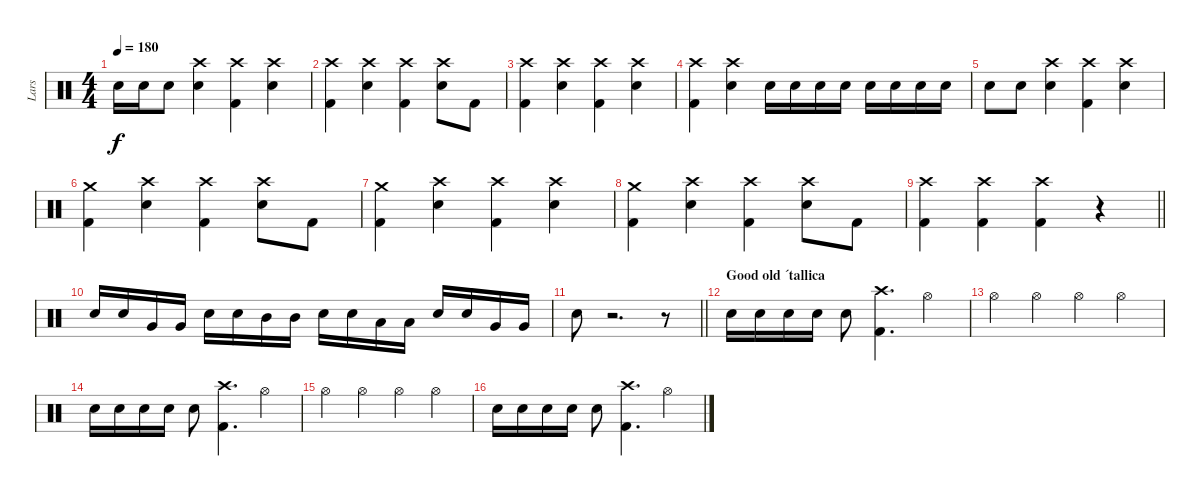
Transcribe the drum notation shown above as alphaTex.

\track ("Lars" "Lars") {instrument percussion}
\staff {score}
\articulation defaults
\ts (4 4)
\tempo 180
\clef neutral
\ks c "Electric Snare (hit)".16{dy f} "Electric Snare (hit)".16 "Electric Snare (hit)".8
("Crash high (hit)" "Electric Snare (hit)").4 ("Crash high (hit)" "Kick (hit) 2").4 ("Crash high (hit)" "Electric Snare (hit)").4 |
("Crash high (hit)" "Kick (hit) 2").4 ("Crash high (hit)" "Electric Snare (hit)").4 ("Crash high (hit)" "Kick (hit) 2").4 ("Crash high (hit)" "Electric Snare (hit)").8 "Kick (hit) 2".8 |
("Crash high (hit)" "Kick (hit) 2").4 ("Crash high (hit)" "Electric Snare (hit)").4 ("Crash high (hit)" "Kick (hit) 2").4 ("Crash high (hit)" "Electric Snare (hit)").4 |
("Crash high (hit)" "Kick (hit) 2").4 ("Crash high (hit)" "Electric Snare (hit)").4 "Electric Snare (hit)".16 "Electric Snare (hit)".16 "Electric Snare (hit)".16 "Electric Snare (hit)".16 "Electric Snare (hit)".16 "Electric Snare (hit)".16 "Electric Snare (hit)".16 "Electric Snare (hit)".16 |
"Electric Snare (hit)".8 "Electric Snare (hit)".8 ("Crash high (hit)" "Electric Snare (hit)").4 ("Crash high (hit)" "Kick (hit) 2").4 ("Crash high (hit)" "Electric Snare (hit)").4 |
("Crash medium (hit)" "Kick (hit) 2").4 ("Crash high (hit)" "Electric Snare (hit)").4 ("Crash high (hit)" "Kick (hit) 2").4 ("Crash high (hit)" "Electric Snare (hit)").8 "Kick (hit) 2".8 |
("Crash medium (hit)" "Kick (hit) 2").4 ("Crash high (hit)" "Electric Snare (hit)").4 ("Crash high (hit)" "Kick (hit) 2").4 ("Crash high (hit)" "Electric Snare (hit)").4 |
("Crash medium (hit)" "Kick (hit) 2").4 ("Crash high (hit)" "Electric Snare (hit)").4 ("Crash high (hit)" "Kick (hit) 2").4 ("Crash high (hit)" "Electric Snare (hit)").8 "Kick (hit) 2".8 |
\barLineRight lightlight
("Crash high (hit)" "Kick (hit) 2").4 ("Crash high (hit)" "Kick (hit) 2").4 ("Crash high (hit)" "Kick (hit) 2").4 r.4 |
\section ("" "")
"Electric Snare (hit)".16 "Electric Snare (hit)".16 "Very Low Tom (hit)".16 "Very Low Tom (hit)".16 "Electric Snare (hit)".16 "Electric Snare (hit)".16 "Mid Tom (hit)".16 "Mid Tom (hit)".16 "Electric Snare (hit)".16 "Electric Snare (hit)".16 "Low Tom (hit)".16 "Low Tom (hit)".16 "Electric Snare (hit)".16 "Electric Snare (hit)".16 "Very Low Tom (hit)".16 "Very Low Tom (hit)".16 |
\barLineRight lightlight "Electric Snare (hit)".8
r.2{d} r.8 |
\section ("" "Good old ´tallica")
"Electric Snare (hit)".16 "Electric Snare (hit)".16 "Electric Snare (hit)".16 "Electric Snare (hit)".16 "Electric Snare (hit)".8 ("Crash high (hit)" "Kick (hit) 2").4{d} "Hi-Hat (open)".4 |
"Hi-Hat (open)".4 "Hi-Hat (open)".4 "Hi-Hat (open)".4 "Hi-Hat (open)".4 |
"Electric Snare (hit)".16 "Electric Snare (hit)".16 "Electric Snare (hit)".16 "Electric Snare (hit)".16 "Electric Snare (hit)".8 ("Crash high (hit)" "Kick (hit) 2").4{d} "Hi-Hat (open)".4 |
"Hi-Hat (open)".4 "Hi-Hat (open)".4 "Hi-Hat (open)".4 "Hi-Hat (open)".4 |
"Electric Snare (hit)".16 "Electric Snare (hit)".16 "Electric Snare (hit)".16 "Electric Snare (hit)".16 "Electric Snare (hit)".8 ("Crash high (hit)" "Kick (hit) 2").4{d} "Hi-Hat (open)".4
